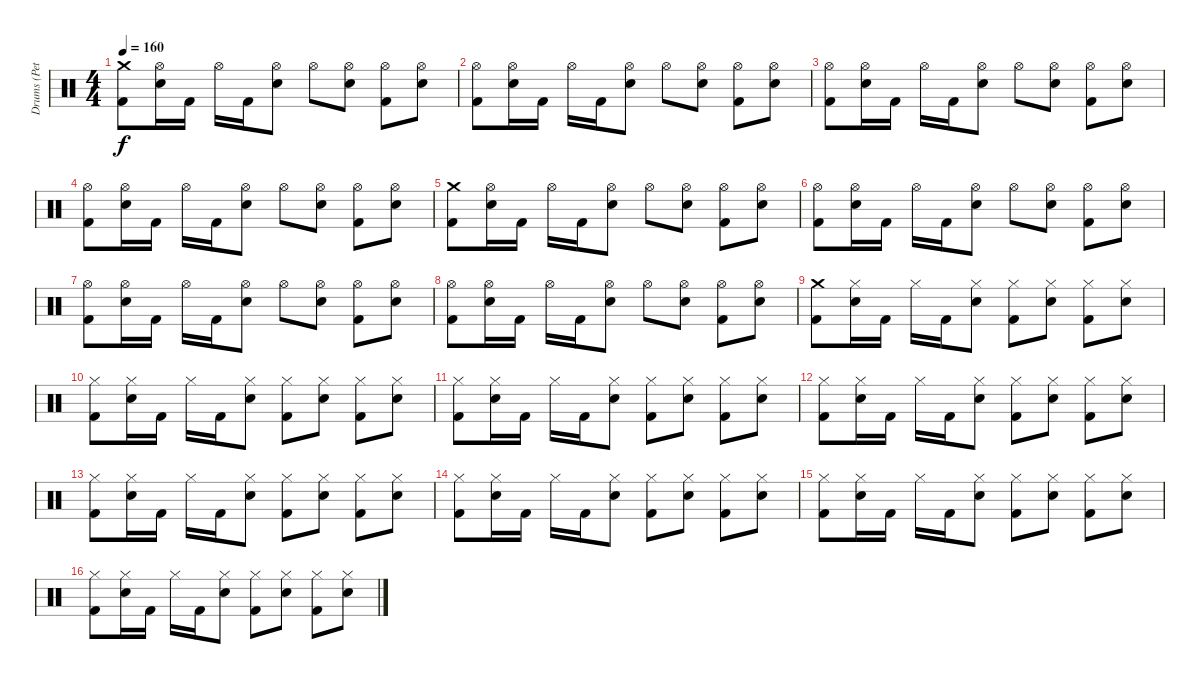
\track ("Drums (Pete)" "Drums (Pet") {instrument percussion}
\staff {score}
\articulation defaults
\ts (4 4)
\tempo 160
\clef neutral
\ks c
("Crash medium (hit)" "Kick (hit) 2").8{dy f} ("Hi-Hat (open)" "Snare (hit) 2").16 "Kick (hit) 2".16 "Hi-Hat (open)".16 "Kick (hit) 2".16 ("Hi-Hat (open)" "Snare (hit) 2").8 "Hi-Hat (open)".8 ("Hi-Hat (open)" "Snare (hit) 2").8 ("Hi-Hat (open)" "Kick (hit) 2").8 ("Hi-Hat (open)" "Snare (hit) 2").8 |
("Hi-Hat (open)" "Kick (hit) 2").8 ("Hi-Hat (open)" "Snare (hit) 2").16 "Kick (hit) 2".16 "Hi-Hat (open)".16 "Kick (hit) 2".16 ("Hi-Hat (open)" "Snare (hit) 2").8 "Hi-Hat (open)".8 ("Hi-Hat (open)" "Snare (hit) 2").8 ("Hi-Hat (open)" "Kick (hit) 2").8 ("Hi-Hat (open)" "Snare (hit) 2").8 |
("Hi-Hat (open)" "Kick (hit) 2").8 ("Hi-Hat (open)" "Snare (hit) 2").16 "Kick (hit) 2".16 "Hi-Hat (open)".16 "Kick (hit) 2".16 ("Hi-Hat (open)" "Snare (hit) 2").8 "Hi-Hat (open)".8 ("Hi-Hat (open)" "Snare (hit) 2").8 ("Hi-Hat (open)" "Kick (hit) 2").8 ("Hi-Hat (open)" "Snare (hit) 2").8 |
("Hi-Hat (open)" "Kick (hit) 2").8 ("Hi-Hat (open)" "Snare (hit) 2").16 "Kick (hit) 2".16 "Hi-Hat (open)".16 "Kick (hit) 2".16 ("Hi-Hat (open)" "Snare (hit) 2").8 "Hi-Hat (open)".8 ("Hi-Hat (open)" "Snare (hit) 2").8 ("Hi-Hat (open)" "Kick (hit) 2").8 ("Hi-Hat (open)" "Snare (hit) 2").8 |
("Crash medium (hit)" "Kick (hit) 2").8 ("Hi-Hat (open)" "Snare (hit) 2").16 "Kick (hit) 2".16 "Hi-Hat (open)".16 "Kick (hit) 2".16 ("Hi-Hat (open)" "Snare (hit) 2").8 "Hi-Hat (open)".8 ("Hi-Hat (open)" "Snare (hit) 2").8 ("Hi-Hat (open)" "Kick (hit) 2").8 ("Hi-Hat (open)" "Snare (hit) 2").8 |
("Hi-Hat (open)" "Kick (hit) 2").8 ("Hi-Hat (open)" "Snare (hit) 2").16 "Kick (hit) 2".16 "Hi-Hat (open)".16 "Kick (hit) 2".16 ("Hi-Hat (open)" "Snare (hit) 2").8 "Hi-Hat (open)".8 ("Hi-Hat (open)" "Snare (hit) 2").8 ("Hi-Hat (open)" "Kick (hit) 2").8 ("Hi-Hat (open)" "Snare (hit) 2").8 |
("Hi-Hat (open)" "Kick (hit) 2").8 ("Hi-Hat (open)" "Snare (hit) 2").16 "Kick (hit) 2".16 "Hi-Hat (open)".16 "Kick (hit) 2".16 ("Hi-Hat (open)" "Snare (hit) 2").8 "Hi-Hat (open)".8 ("Hi-Hat (open)" "Snare (hit) 2").8 ("Hi-Hat (open)" "Kick (hit) 2").8 ("Hi-Hat (open)" "Snare (hit) 2").8 |
("Hi-Hat (open)" "Kick (hit) 2").8 ("Hi-Hat (open)" "Snare (hit) 2").16 "Kick (hit) 2".16 "Hi-Hat (open)".16 "Kick (hit) 2".16 ("Hi-Hat (open)" "Snare (hit) 2").8 "Hi-Hat (open)".8 ("Hi-Hat (open)" "Snare (hit) 2").8 ("Hi-Hat (open)" "Kick (hit) 2").8 ("Hi-Hat (open)" "Snare (hit) 2").8 |
("Crash medium (hit)" "Kick (hit) 2").8 ("Hi-Hat (closed)" "Snare (hit) 2").16 "Kick (hit) 2".16 "Hi-Hat (closed)".16 "Kick (hit) 2".16 ("Hi-Hat (closed)" "Snare (hit) 2").8 ("Hi-Hat (closed)" "Kick (hit) 2").8 ("Hi-Hat (closed)" "Snare (hit) 2").8 ("Hi-Hat (closed)" "Kick (hit) 2").8 ("Hi-Hat (closed)" "Snare (hit) 2").8 |
("Hi-Hat (closed)" "Kick (hit) 2").8 ("Hi-Hat (closed)" "Snare (hit) 2").16 "Kick (hit) 2".16 "Hi-Hat (closed)".16 "Kick (hit) 2".16 ("Hi-Hat (closed)" "Snare (hit) 2").8 ("Hi-Hat (closed)" "Kick (hit) 2").8 ("Hi-Hat (closed)" "Snare (hit) 2").8 ("Hi-Hat (closed)" "Kick (hit) 2").8 ("Hi-Hat (closed)" "Snare (hit) 2").8 |
("Hi-Hat (closed)" "Kick (hit) 2").8 ("Hi-Hat (closed)" "Snare (hit) 2").16 "Kick (hit) 2".16 "Hi-Hat (closed)".16 "Kick (hit) 2".16 ("Hi-Hat (closed)" "Snare (hit) 2").8 ("Hi-Hat (closed)" "Kick (hit) 2").8 ("Hi-Hat (closed)" "Snare (hit) 2").8 ("Hi-Hat (closed)" "Kick (hit) 2").8 ("Hi-Hat (closed)" "Snare (hit) 2").8 |
("Hi-Hat (closed)" "Kick (hit) 2").8 ("Hi-Hat (closed)" "Snare (hit) 2").16 "Kick (hit) 2".16 "Hi-Hat (closed)".16 "Kick (hit) 2".16 ("Hi-Hat (closed)" "Snare (hit) 2").8 ("Hi-Hat (closed)" "Kick (hit) 2").8 ("Hi-Hat (closed)" "Snare (hit) 2").8 ("Hi-Hat (closed)" "Kick (hit) 2").8 ("Hi-Hat (closed)" "Snare (hit) 2").8 |
("Hi-Hat (closed)" "Kick (hit) 2").8 ("Hi-Hat (closed)" "Snare (hit) 2").16 "Kick (hit) 2".16 "Hi-Hat (closed)".16 "Kick (hit) 2".16 ("Hi-Hat (closed)" "Snare (hit) 2").8 ("Hi-Hat (closed)" "Kick (hit) 2").8 ("Hi-Hat (closed)" "Snare (hit) 2").8 ("Hi-Hat (closed)" "Kick (hit) 2").8 ("Hi-Hat (closed)" "Snare (hit) 2").8 |
("Hi-Hat (closed)" "Kick (hit) 2").8 ("Hi-Hat (closed)" "Snare (hit) 2").16 "Kick (hit) 2".16 "Hi-Hat (closed)".16 "Kick (hit) 2".16 ("Hi-Hat (closed)" "Snare (hit) 2").8 ("Hi-Hat (closed)" "Kick (hit) 2").8 ("Hi-Hat (closed)" "Snare (hit) 2").8 ("Hi-Hat (closed)" "Kick (hit) 2").8 ("Hi-Hat (closed)" "Snare (hit) 2").8 |
("Hi-Hat (closed)" "Kick (hit) 2").8 ("Hi-Hat (closed)" "Snare (hit) 2").16 "Kick (hit) 2".16 "Hi-Hat (closed)".16 "Kick (hit) 2".16 ("Hi-Hat (closed)" "Snare (hit) 2").8 ("Hi-Hat (closed)" "Kick (hit) 2").8 ("Hi-Hat (closed)" "Snare (hit) 2").8 ("Hi-Hat (closed)" "Kick (hit) 2").8 ("Hi-Hat (closed)" "Snare (hit) 2").8 |
("Hi-Hat (closed)" "Kick (hit) 2").8 ("Hi-Hat (closed)" "Snare (hit) 2").16 "Kick (hit) 2".16 "Hi-Hat (closed)".16 "Kick (hit) 2".16 ("Hi-Hat (closed)" "Snare (hit) 2").8 ("Hi-Hat (closed)" "Kick (hit) 2").8 ("Hi-Hat (closed)" "Snare (hit) 2").8 ("Hi-Hat (closed)" "Kick (hit) 2").8 ("Hi-Hat (closed)" "Snare (hit) 2").8
